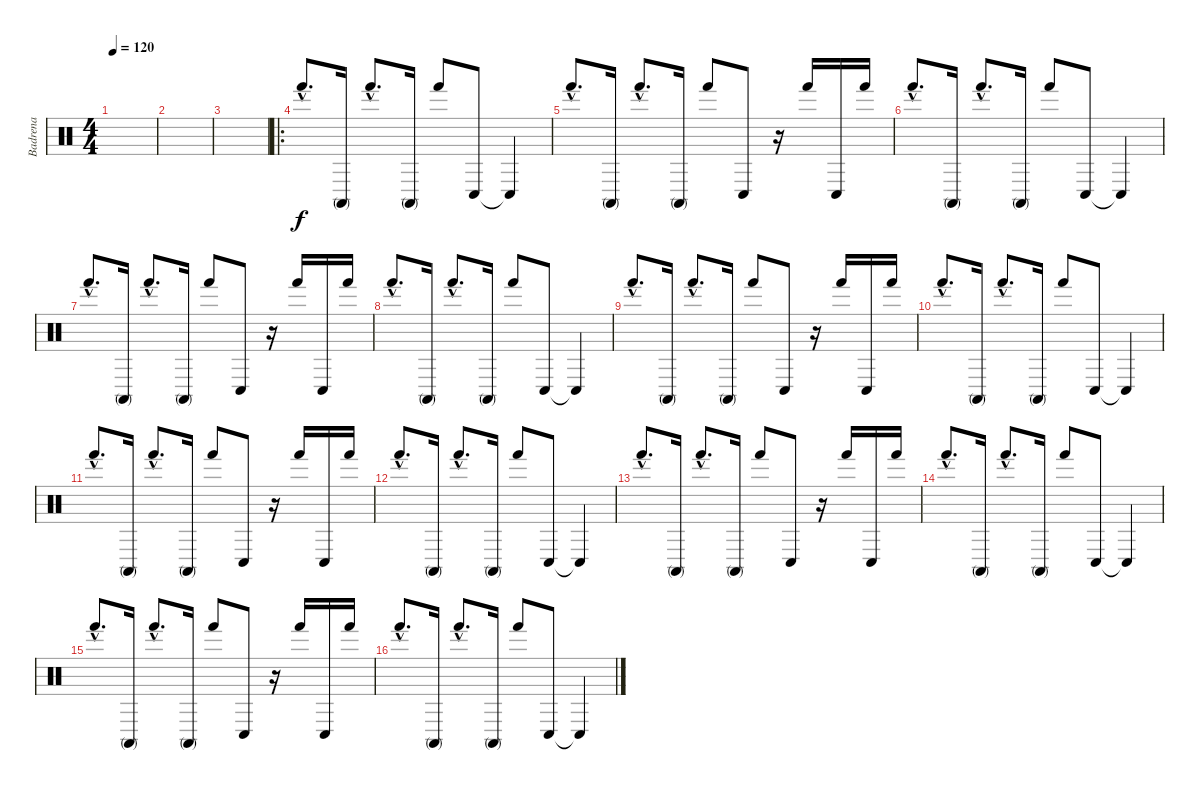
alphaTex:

\track ("Badrena" "Badrena") {instrument percussion}
\staff {score}
\articulation defaults
\ts (4 4)
\tempo 120
\clef neutral
\ks c
|
|
|
\ro "Hand (hit)"{hac}.8{d} "Conga high (mute)".16 "Hand (hit)"{hac}.8{d} "Conga high (mute)".16 "Hand (hit)".8 "Conga low (hit)".8 "Conga low (hit)"{t}.4
|
"Hand (hit)"{hac}.8{d} "Conga high (mute)".16 "Hand (hit)"{hac}.8{d} "Conga high (mute)".16 "Hand (hit)".8 "Conga low (hit)".8 r.16 "Hand (hit)".16 "Conga low (hit)".16 "Hand (hit)".16 |
"Hand (hit)"{hac}.8{d} "Conga high (mute)".16 "Hand (hit)"{hac}.8{d} "Conga high (mute)".16 "Hand (hit)".8 "Conga low (hit)".8 "Conga low (hit)"{t}.4 |
"Hand (hit)"{hac}.8{d} "Conga high (mute)".16 "Hand (hit)"{hac}.8{d} "Conga high (mute)".16 "Hand (hit)".8 "Conga low (hit)".8 r.16 "Hand (hit)".16 "Conga low (hit)".16 "Hand (hit)".16 |
"Hand (hit)"{hac}.8{d} "Conga high (mute)".16 "Hand (hit)"{hac}.8{d} "Conga high (mute)".16 "Hand (hit)".8 "Conga low (hit)".8 "Conga low (hit)"{t}.4 |
"Hand (hit)"{hac}.8{d} "Conga high (mute)".16 "Hand (hit)"{hac}.8{d} "Conga high (mute)".16 "Hand (hit)".8 "Conga low (hit)".8 r.16 "Hand (hit)".16 "Conga low (hit)".16 "Hand (hit)".16 |
"Hand (hit)"{hac}.8{d} "Conga high (mute)".16 "Hand (hit)"{hac}.8{d} "Conga high (mute)".16 "Hand (hit)".8 "Conga low (hit)".8 "Conga low (hit)"{t}.4 |
"Hand (hit)"{hac}.8{d} "Conga high (mute)".16 "Hand (hit)"{hac}.8{d} "Conga high (mute)".16 "Hand (hit)".8 "Conga low (hit)".8 r.16 "Hand (hit)".16 "Conga low (hit)".16 "Hand (hit)".16 |
"Hand (hit)"{hac}.8{d} "Conga high (mute)".16 "Hand (hit)"{hac}.8{d} "Conga high (mute)".16 "Hand (hit)".8 "Conga low (hit)".8 "Conga low (hit)"{t}.4 |
"Hand (hit)"{hac}.8{d} "Conga high (mute)".16 "Hand (hit)"{hac}.8{d} "Conga high (mute)".16 "Hand (hit)".8 "Conga low (hit)".8 r.16 "Hand (hit)".16 "Conga low (hit)".16 "Hand (hit)".16 |
"Hand (hit)"{hac}.8{d} "Conga high (mute)".16 "Hand (hit)"{hac}.8{d} "Conga high (mute)".16 "Hand (hit)".8 "Conga low (hit)".8 "Conga low (hit)"{t}.4 |
"Hand (hit)"{hac}.8{d} "Conga high (mute)".16 "Hand (hit)"{hac}.8{d} "Conga high (mute)".16 "Hand (hit)".8 "Conga low (hit)".8 r.16 "Hand (hit)".16 "Conga low (hit)".16 "Hand (hit)".16 |
"Hand (hit)"{hac}.8{d} "Conga high (mute)".16 "Hand (hit)"{hac}.8{d} "Conga high (mute)".16 "Hand (hit)".8 "Conga low (hit)".8 "Conga low (hit)"{t}.4
